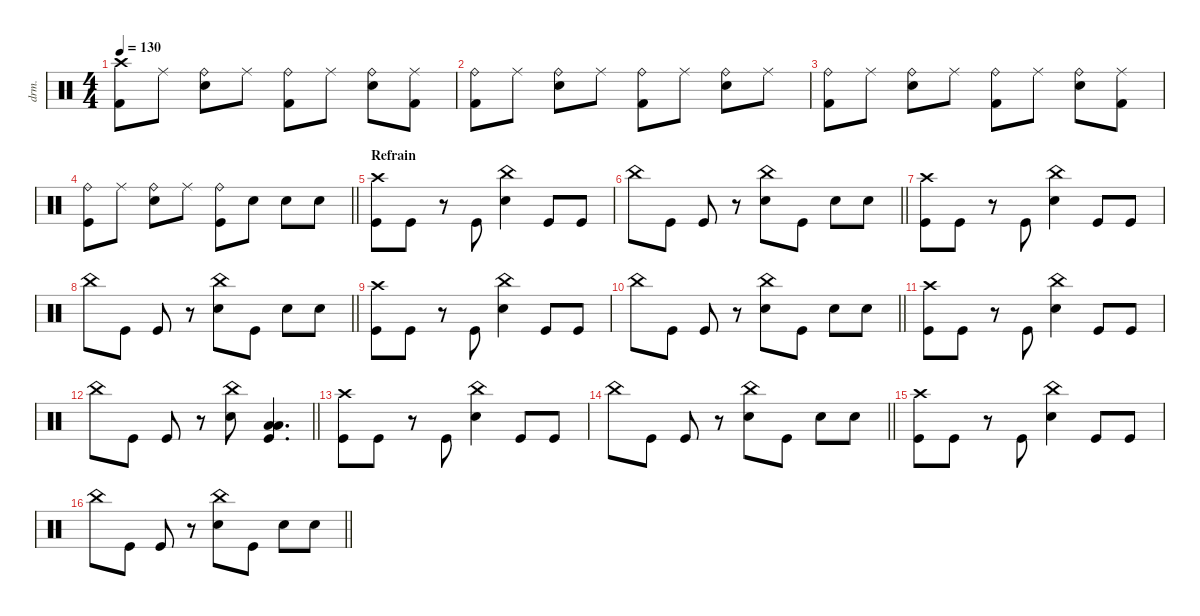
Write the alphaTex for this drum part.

\defaultSystemsLayout 4
\hideDynamics
\bracketExtendMode nobrackets
\track ("Manouche" "drm.") {instrument percussion}
\staff {score}
\articulation defaults
\ts (4 4)
\tempo 130
\clef neutral
\ks c
("Crash high (hit)" "Kick (hit) 2").8{dy f beam Down} "Ride (middle)".8{dy mf beam Down} ("Ride (bell)" "Snare (hit) 2").8{dy f beam Down} "Ride (middle)".8{dy mf beam Down} ("Ride (bell)" "Kick (hit) 2").8{dy f beam Down} "Ride (middle)".8{dy mf beam Down} ("Ride (bell)" "Snare (hit) 2").8{dy f beam Down} ("Ride (middle)" "Kick (hit) 2").8{dy mf beam Down} |
("Ride (bell)" "Kick (hit) 2").8{dy f beam Down} "Ride (middle)".8{dy mf beam Down} ("Ride (bell)" "Snare (hit) 2").8{dy f beam Down} "Ride (middle)".8{dy mf beam Down} ("Ride (bell)" "Kick (hit) 2").8{dy f beam Down} "Ride (middle)".8{dy mf beam Down} ("Ride (bell)" "Snare (hit) 2").8{dy f beam Down} "Ride (middle)".8{dy mf beam Down} |
("Ride (bell)" "Kick (hit) 2").8{dy f beam Down} "Ride (middle)".8{dy mf beam Down} ("Ride (bell)" "Snare (hit) 2").8{dy f beam Down} "Ride (middle)".8{dy mf beam Down} ("Ride (bell)" "Kick (hit) 2").8{dy f beam Down} "Ride (middle)".8{dy mf beam Down} ("Ride (bell)" "Snare (hit) 2").8{dy f beam Down} ("Ride (middle)" "Kick (hit) 2").8{dy mf beam Down} |
\barLineRight lightlight
("Ride (bell)" "Kick (hit)").8{dy f beam Down} "Ride (middle)".8{dy mf beam Down} ("Ride (bell)" "Snare (hit) 2").8{dy f beam Down} "Ride (middle)".8{dy mf beam Down} ("Ride (bell)" "Kick (hit)").8{dy f beam Down} "Snare (hit) 2".8{beam Down} "Snare (hit) 2".8{beam Down} "Snare (hit) 2".8{beam Down} |
\section ("" "Refrain")
("Crash high (hit)" "Kick (hit)").8{beam Down} "Kick (hit)".8{beam Down} r.8{beam Down} "Kick (hit)".8{beam Up} ("China (hit)" "Snare (hit) 2").4{beam Down} "Kick (hit)".8{beam Up} "Kick (hit)".8{beam Up} |
\barLineRight lightlight "China (hit)".8{beam Down} "Kick (hit)".8{beam Down} "Kick (hit)".8{beam Up}
r.8{beam Up} ("China (hit)" "Snare (hit) 2").8{beam Down} "Kick (hit)".8{beam Down} "Snare (hit) 2".8{beam Down} "Snare (hit) 2".8{beam Down} |
("Crash high (hit)" "Kick (hit)").8{beam Down} "Kick (hit)".8{beam Down} r.8{beam Down} "Kick (hit)".8{beam Up} ("China (hit)" "Snare (hit) 2").4{beam Down} "Kick (hit)".8{beam Up} "Kick (hit)".8{beam Up} |
\barLineRight lightlight "China (hit)".8{beam Down} "Kick (hit)".8{beam Down} "Kick (hit)".8{beam Up}
r.8{beam Up} ("China (hit)" "Snare (hit) 2").8{beam Down} "Kick (hit)".8{beam Down} "Snare (hit) 2".8{beam Down} "Snare (hit) 2".8{beam Down} |
("Crash high (hit)" "Kick (hit)").8{beam Down} "Kick (hit)".8{beam Down} r.8{beam Down} "Kick (hit)".8{beam Up} ("China (hit)" "Snare (hit) 2").4{beam Down} "Kick (hit)".8{beam Up} "Kick (hit)".8{beam Up} |
\barLineRight lightlight "China (hit)".8{beam Down} "Kick (hit)".8{beam Down} "Kick (hit)".8{beam Up}
r.8{beam Up} ("China (hit)" "Snare (hit) 2").8{beam Down} "Kick (hit)".8{beam Down} "Snare (hit) 2".8{beam Down} "Snare (hit) 2".8{beam Down} |
("Crash high (hit)" "Kick (hit)").8{beam Down} "Kick (hit)".8{beam Down} r.8{beam Down} "Kick (hit)".8{beam Up} ("China (hit)" "Snare (hit) 2").4{beam Down} "Kick (hit)".8{beam Up} "Kick (hit)".8{beam Up} |
\barLineRight lightlight "China (hit)".8{beam Down} "Kick (hit)".8{beam Down} "Kick (hit)".8{beam Up}
r.8{beam Up} ("China (hit)" "Snare (hit) 2").8{beam Down} ("Low Tom (hit)" "Kick (hit)" "Low Floor Tom (hit)").4{d dy ff beam Up} |
("Crash high (hit)" "Kick (hit)").8{dy f beam Down} "Kick (hit)".8{beam Down} r.8{beam Down} "Kick (hit)".8{beam Up} ("China (hit)" "Snare (hit) 2").4{beam Down} "Kick (hit)".8{beam Up} "Kick (hit)".8{beam Up} |
\barLineRight lightlight "China (hit)".8{beam Down} "Kick (hit)".8{beam Down} "Kick (hit)".8{beam Up}
r.8{beam Up} ("China (hit)" "Snare (hit) 2").8{beam Down} "Kick (hit)".8{beam Down} "Snare (hit) 2".8{beam Down} "Snare (hit) 2".8{beam Down} |
("Crash high (hit)" "Kick (hit)").8{beam Down} "Kick (hit)".8{beam Down} r.8{beam Down} "Kick (hit)".8{beam Up} ("China (hit)" "Snare (hit) 2").4{beam Down} "Kick (hit)".8{beam Up} "Kick (hit)".8{beam Up} |
\barLineRight lightlight "China (hit)".8{beam Down} "Kick (hit)".8{beam Down} "Kick (hit)".8{beam Up}
r.8{beam Up} ("China (hit)" "Snare (hit) 2").8{beam Down} "Kick (hit)".8{beam Down} "Snare (hit) 2".8{beam Down} "Snare (hit) 2".8{beam Down}
